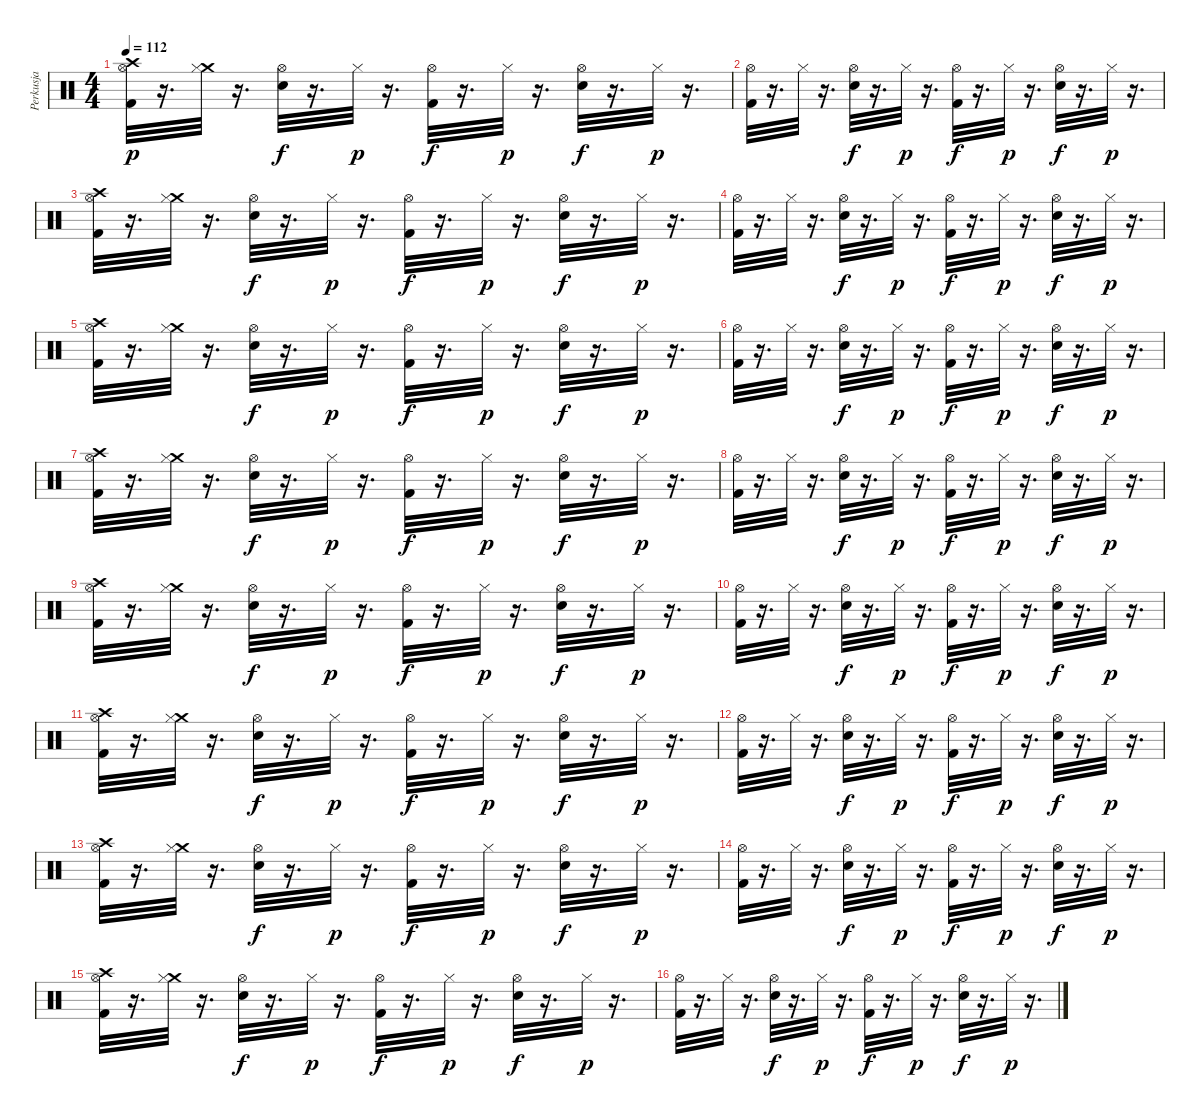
\track ("Perkusja" "Perkusja") {instrument percussion}
\staff {score}
\articulation defaults
\ts (4 4)
\tempo 112
\clef neutral
\ks c
("Crash high (hit)" "Hi-Hat (open)" "Kick (hit) 2").32{dy p} r.16{d} ("Crash medium (hit)" "Hi-Hat (closed)").32 r.16{d} ("Hi-Hat (open)" "Snare (hit) 2").32{dy f} r.16{d} "Hi-Hat (closed)".32{dy p} r.16{d} ("Hi-Hat (open)" "Kick (hit) 2").32{dy f} r.16{d} "Hi-Hat (closed)".32{dy p} r.16{d} ("Hi-Hat (open)" "Snare (hit) 2").32{dy f} r.16{d} "Hi-Hat (closed)".32{dy p} r.16{d} |
("Hi-Hat (open)" "Kick (hit) 2").32 r.16{d} "Hi-Hat (closed)".32 r.16{d} ("Hi-Hat (open)" "Snare (hit) 2").32{dy f} r.16{d} "Hi-Hat (closed)".32{dy p} r.16{d} ("Hi-Hat (open)" "Kick (hit) 2").32{dy f} r.16{d} "Hi-Hat (closed)".32{dy p} r.16{d} ("Hi-Hat (open)" "Snare (hit) 2").32{dy f} r.16{d} "Hi-Hat (closed)".32{dy p} r.16{d} |
("Crash high (hit)" "Hi-Hat (open)" "Kick (hit) 2").32 r.16{d} ("Crash medium (hit)" "Hi-Hat (closed)").32 r.16{d} ("Hi-Hat (open)" "Snare (hit) 2").32{dy f} r.16{d} "Hi-Hat (closed)".32{dy p} r.16{d} ("Hi-Hat (open)" "Kick (hit) 2").32{dy f} r.16{d} "Hi-Hat (closed)".32{dy p} r.16{d} ("Hi-Hat (open)" "Snare (hit) 2").32{dy f} r.16{d} "Hi-Hat (closed)".32{dy p} r.16{d} |
("Hi-Hat (open)" "Kick (hit) 2").32 r.16{d} "Hi-Hat (closed)".32 r.16{d} ("Hi-Hat (open)" "Snare (hit) 2").32{dy f} r.16{d} "Hi-Hat (closed)".32{dy p} r.16{d} ("Hi-Hat (open)" "Kick (hit) 2").32{dy f} r.16{d} "Hi-Hat (closed)".32{dy p} r.16{d} ("Hi-Hat (open)" "Snare (hit) 2").32{dy f} r.16{d} "Hi-Hat (closed)".32{dy p} r.16{d} |
("Crash high (hit)" "Hi-Hat (open)" "Kick (hit) 2").32 r.16{d} ("Crash medium (hit)" "Hi-Hat (closed)").32 r.16{d} ("Hi-Hat (open)" "Snare (hit) 2").32{dy f} r.16{d} "Hi-Hat (closed)".32{dy p} r.16{d} ("Hi-Hat (open)" "Kick (hit) 2").32{dy f} r.16{d} "Hi-Hat (closed)".32{dy p} r.16{d} ("Hi-Hat (open)" "Snare (hit) 2").32{dy f} r.16{d} "Hi-Hat (closed)".32{dy p} r.16{d} |
("Hi-Hat (open)" "Kick (hit) 2").32 r.16{d} "Hi-Hat (closed)".32 r.16{d} ("Hi-Hat (open)" "Snare (hit) 2").32{dy f} r.16{d} "Hi-Hat (closed)".32{dy p} r.16{d} ("Hi-Hat (open)" "Kick (hit) 2").32{dy f} r.16{d} "Hi-Hat (closed)".32{dy p} r.16{d} ("Hi-Hat (open)" "Snare (hit) 2").32{dy f} r.16{d} "Hi-Hat (closed)".32{dy p} r.16{d} |
("Crash high (hit)" "Hi-Hat (open)" "Kick (hit) 2").32 r.16{d} ("Crash medium (hit)" "Hi-Hat (closed)").32 r.16{d} ("Hi-Hat (open)" "Snare (hit) 2").32{dy f} r.16{d} "Hi-Hat (closed)".32{dy p} r.16{d} ("Hi-Hat (open)" "Kick (hit) 2").32{dy f} r.16{d} "Hi-Hat (closed)".32{dy p} r.16{d} ("Hi-Hat (open)" "Snare (hit) 2").32{dy f} r.16{d} "Hi-Hat (closed)".32{dy p} r.16{d} |
("Hi-Hat (open)" "Kick (hit) 2").32 r.16{d} "Hi-Hat (closed)".32 r.16{d} ("Hi-Hat (open)" "Snare (hit) 2").32{dy f} r.16{d} "Hi-Hat (closed)".32{dy p} r.16{d} ("Hi-Hat (open)" "Kick (hit) 2").32{dy f} r.16{d} "Hi-Hat (closed)".32{dy p} r.16{d} ("Hi-Hat (open)" "Snare (hit) 2").32{dy f} r.16{d} "Hi-Hat (closed)".32{dy p} r.16{d} |
("Crash high (hit)" "Hi-Hat (open)" "Kick (hit) 2").32 r.16{d} ("Crash medium (hit)" "Hi-Hat (closed)").32 r.16{d} ("Hi-Hat (open)" "Snare (hit) 2").32{dy f} r.16{d} "Hi-Hat (closed)".32{dy p} r.16{d} ("Hi-Hat (open)" "Kick (hit) 2").32{dy f} r.16{d} "Hi-Hat (closed)".32{dy p} r.16{d} ("Hi-Hat (open)" "Snare (hit) 2").32{dy f} r.16{d} "Hi-Hat (closed)".32{dy p} r.16{d} |
("Hi-Hat (open)" "Kick (hit) 2").32 r.16{d} "Hi-Hat (closed)".32 r.16{d} ("Hi-Hat (open)" "Snare (hit) 2").32{dy f} r.16{d} "Hi-Hat (closed)".32{dy p} r.16{d} ("Hi-Hat (open)" "Kick (hit) 2").32{dy f} r.16{d} "Hi-Hat (closed)".32{dy p} r.16{d} ("Hi-Hat (open)" "Snare (hit) 2").32{dy f} r.16{d} "Hi-Hat (closed)".32{dy p} r.16{d} |
("Crash high (hit)" "Hi-Hat (open)" "Kick (hit) 2").32 r.16{d} ("Crash medium (hit)" "Hi-Hat (closed)").32 r.16{d} ("Hi-Hat (open)" "Snare (hit) 2").32{dy f} r.16{d} "Hi-Hat (closed)".32{dy p} r.16{d} ("Hi-Hat (open)" "Kick (hit) 2").32{dy f} r.16{d} "Hi-Hat (closed)".32{dy p} r.16{d} ("Hi-Hat (open)" "Snare (hit) 2").32{dy f} r.16{d} "Hi-Hat (closed)".32{dy p} r.16{d} |
("Hi-Hat (open)" "Kick (hit) 2").32 r.16{d} "Hi-Hat (closed)".32 r.16{d} ("Hi-Hat (open)" "Snare (hit) 2").32{dy f} r.16{d} "Hi-Hat (closed)".32{dy p} r.16{d} ("Hi-Hat (open)" "Kick (hit) 2").32{dy f} r.16{d} "Hi-Hat (closed)".32{dy p} r.16{d} ("Hi-Hat (open)" "Snare (hit) 2").32{dy f} r.16{d} "Hi-Hat (closed)".32{dy p} r.16{d} |
("Crash high (hit)" "Hi-Hat (open)" "Kick (hit) 2").32 r.16{d} ("Crash medium (hit)" "Hi-Hat (closed)").32 r.16{d} ("Hi-Hat (open)" "Snare (hit) 2").32{dy f} r.16{d} "Hi-Hat (closed)".32{dy p} r.16{d} ("Hi-Hat (open)" "Kick (hit) 2").32{dy f} r.16{d} "Hi-Hat (closed)".32{dy p} r.16{d} ("Hi-Hat (open)" "Snare (hit) 2").32{dy f} r.16{d} "Hi-Hat (closed)".32{dy p} r.16{d} |
("Hi-Hat (open)" "Kick (hit) 2").32 r.16{d} "Hi-Hat (closed)".32 r.16{d} ("Hi-Hat (open)" "Snare (hit) 2").32{dy f} r.16{d} "Hi-Hat (closed)".32{dy p} r.16{d} ("Hi-Hat (open)" "Kick (hit) 2").32{dy f} r.16{d} "Hi-Hat (closed)".32{dy p} r.16{d} ("Hi-Hat (open)" "Snare (hit) 2").32{dy f} r.16{d} "Hi-Hat (closed)".32{dy p} r.16{d} |
("Crash high (hit)" "Hi-Hat (open)" "Kick (hit) 2").32 r.16{d} ("Crash medium (hit)" "Hi-Hat (closed)").32 r.16{d} ("Hi-Hat (open)" "Snare (hit) 2").32{dy f} r.16{d} "Hi-Hat (closed)".32{dy p} r.16{d} ("Hi-Hat (open)" "Kick (hit) 2").32{dy f} r.16{d} "Hi-Hat (closed)".32{dy p} r.16{d} ("Hi-Hat (open)" "Snare (hit) 2").32{dy f} r.16{d} "Hi-Hat (closed)".32{dy p} r.16{d} |
("Hi-Hat (open)" "Kick (hit) 2").32 r.16{d} "Hi-Hat (closed)".32 r.16{d} ("Hi-Hat (open)" "Snare (hit) 2").32{dy f} r.16{d} "Hi-Hat (closed)".32{dy p} r.16{d} ("Hi-Hat (open)" "Kick (hit) 2").32{dy f} r.16{d} "Hi-Hat (closed)".32{dy p} r.16{d} ("Hi-Hat (open)" "Snare (hit) 2").32{dy f} r.16{d} "Hi-Hat (closed)".32{dy p} r.16{d}
